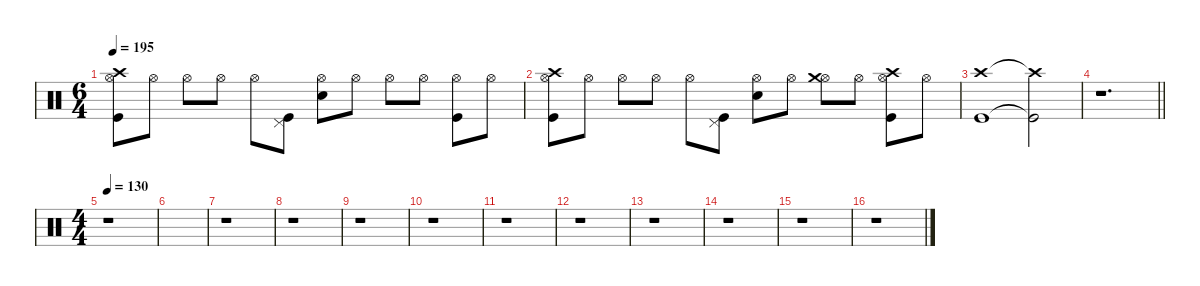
\defaultSystemsLayout 4
\hideDynamics
\bracketExtendMode nobrackets
\singleTrackTrackNamePolicy hidden
\multiTrackTrackNamePolicy hidden
\firstSystemTrackNameMode fullname
\firstSystemTrackNameOrientation horizontal
\otherSystemsTrackNameOrientation horizontal
\track ("Percussion" "drm.") {defaultSystemsLayout 2 instrument percussion}
\staff {score}
\articulation defaults
\ts (6 4)
\tempo 195
\clef neutral
\ks c
("Crash high (hit)" "Hi-Hat (open)" "Kick (hit)").8{dy f beam Down} "Hi-Hat (open)".8{beam Down} "Hi-Hat (open)".8{beam Down} "Hi-Hat (open)".8{beam Down} "Hi-Hat (open)".8{beam Down} ("Pedal Hi-Hat (hit)" "Kick (hit)").8{beam Down} ("Hi-Hat (open)" "Snare (hit) 2").8{beam Down} "Hi-Hat (open)".8{beam Down} "Hi-Hat (open)".8{beam Down} "Hi-Hat (open)".8{beam Down} ("Hi-Hat (open)" "Kick (hit)").8{beam Down} "Hi-Hat (open)".8{beam Down} |
("Crash high (hit)" "Hi-Hat (open)" "Kick (hit)").8{beam Down} "Hi-Hat (open)".8{beam Down} "Hi-Hat (open)".8{beam Down} "Hi-Hat (open)".8{beam Down} "Hi-Hat (open)".8{beam Down} ("Pedal Hi-Hat (hit)" "Kick (hit)").8{beam Down} ("Hi-Hat (open)" "Snare (hit) 2").8{beam Down} "Hi-Hat (open)".8{beam Down} ("Hi-Hat (open)" "Crash medium (hit)").8{beam Down} "Hi-Hat (open)".8{beam Down} ("Hi-Hat (open)" "Crash high (hit)" "Kick (hit)").8{beam Down} "Hi-Hat (open)".8{beam Down} |
("Crash high (hit)" "Kick (hit)").1{beam Down} ("Crash high (hit)"{t} "Kick (hit)"{t}).2{beam Down} |
\barLineRight lightlight
r.1{d beam Down} |
\ts (4 4)
\beaming (8 2 2 2 2)
\tempo 130
r.1{beam Down} |
|
r.1{beam Down} |
r.1{beam Down} |
r.1{beam Down} |
r.1{beam Down} |
r.1{beam Down} |
r.1{beam Down} |
r.1{beam Down} |
r.1{beam Down} |
r.1{beam Down} |
r.1{beam Down}
